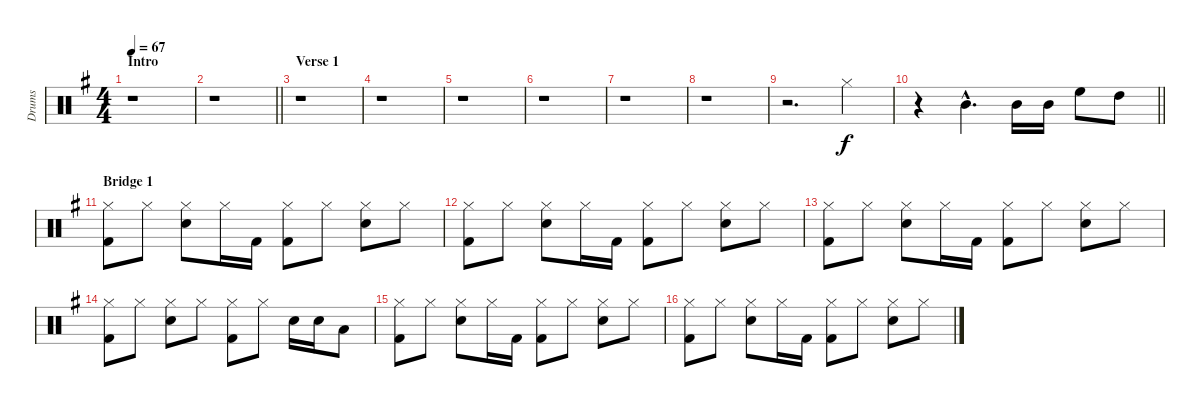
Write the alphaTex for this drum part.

\track ("Drums" "Drums") {instrument percussion}
\staff {score}
\articulation defaults
\ts (4 4)
\section ("" "Intro")
\tempo 67
\clef neutral
\ks g
r.1{dy f} |
\barLineRight lightlight
r.1 |
\section ("" "Verse 1")
r.1 |
r.1 |
r.1 |
r.1 |
r.1 |
r.1 |
r.2{d} "Hi-Hat (closed)".4 |
\barLineRight lightlight
r.4 "Mid Tom (hit)"{hac}.4{d} "Mid Tom (hit)".16 "Mid Tom (hit)".16 "High Floor Tom (hit)".8 "High Tom (hit)".8 |
\section ("" "Bridge 1")
("Hi-Hat (closed)" "Kick (hit) 2").8 "Hi-Hat (closed)".8 ("Hi-Hat (closed)" "Snare (hit) 2").8 "Hi-Hat (closed)".16 "Kick (hit) 2".16 ("Hi-Hat (closed)" "Kick (hit) 2").8 "Hi-Hat (closed)".8 ("Hi-Hat (closed)" "Snare (hit) 2").8 "Hi-Hat (closed)".8 |
("Hi-Hat (closed)" "Kick (hit) 2").8 "Hi-Hat (closed)".8 ("Hi-Hat (closed)" "Snare (hit) 2").8 "Hi-Hat (closed)".16 "Kick (hit) 2".16 ("Hi-Hat (closed)" "Kick (hit) 2").8 "Hi-Hat (closed)".8 ("Hi-Hat (closed)" "Snare (hit) 2").8 "Hi-Hat (closed)".8 |
("Hi-Hat (closed)" "Kick (hit) 2").8 "Hi-Hat (closed)".8 ("Hi-Hat (closed)" "Snare (hit) 2").8 "Hi-Hat (closed)".16 "Kick (hit) 2".16 ("Hi-Hat (closed)" "Kick (hit) 2").8 "Hi-Hat (closed)".8 ("Hi-Hat (closed)" "Snare (hit) 2").8 "Hi-Hat (closed)".8 |
("Hi-Hat (closed)" "Kick (hit) 2").8 "Hi-Hat (closed)".8 ("Hi-Hat (closed)" "Snare (hit) 2").8 "Hi-Hat (closed)".8 ("Hi-Hat (closed)" "Kick (hit) 2").8 "Hi-Hat (closed)".8 "Snare (hit) 2".16 "Snare (hit) 2".16 "Low Tom (hit)".8 |
("Hi-Hat (closed)" "Kick (hit) 2").8 "Hi-Hat (closed)".8 ("Hi-Hat (closed)" "Snare (hit) 2").8 "Hi-Hat (closed)".16 "Kick (hit) 2".16 ("Hi-Hat (closed)" "Kick (hit) 2").8 "Hi-Hat (closed)".8 ("Hi-Hat (closed)" "Snare (hit) 2").8 "Hi-Hat (closed)".8 |
("Hi-Hat (closed)" "Kick (hit) 2").8 "Hi-Hat (closed)".8 ("Hi-Hat (closed)" "Snare (hit) 2").8 "Hi-Hat (closed)".16 "Kick (hit) 2".16 ("Hi-Hat (closed)" "Kick (hit) 2").8 "Hi-Hat (closed)".8 ("Hi-Hat (closed)" "Snare (hit) 2").8 "Hi-Hat (closed)".8
